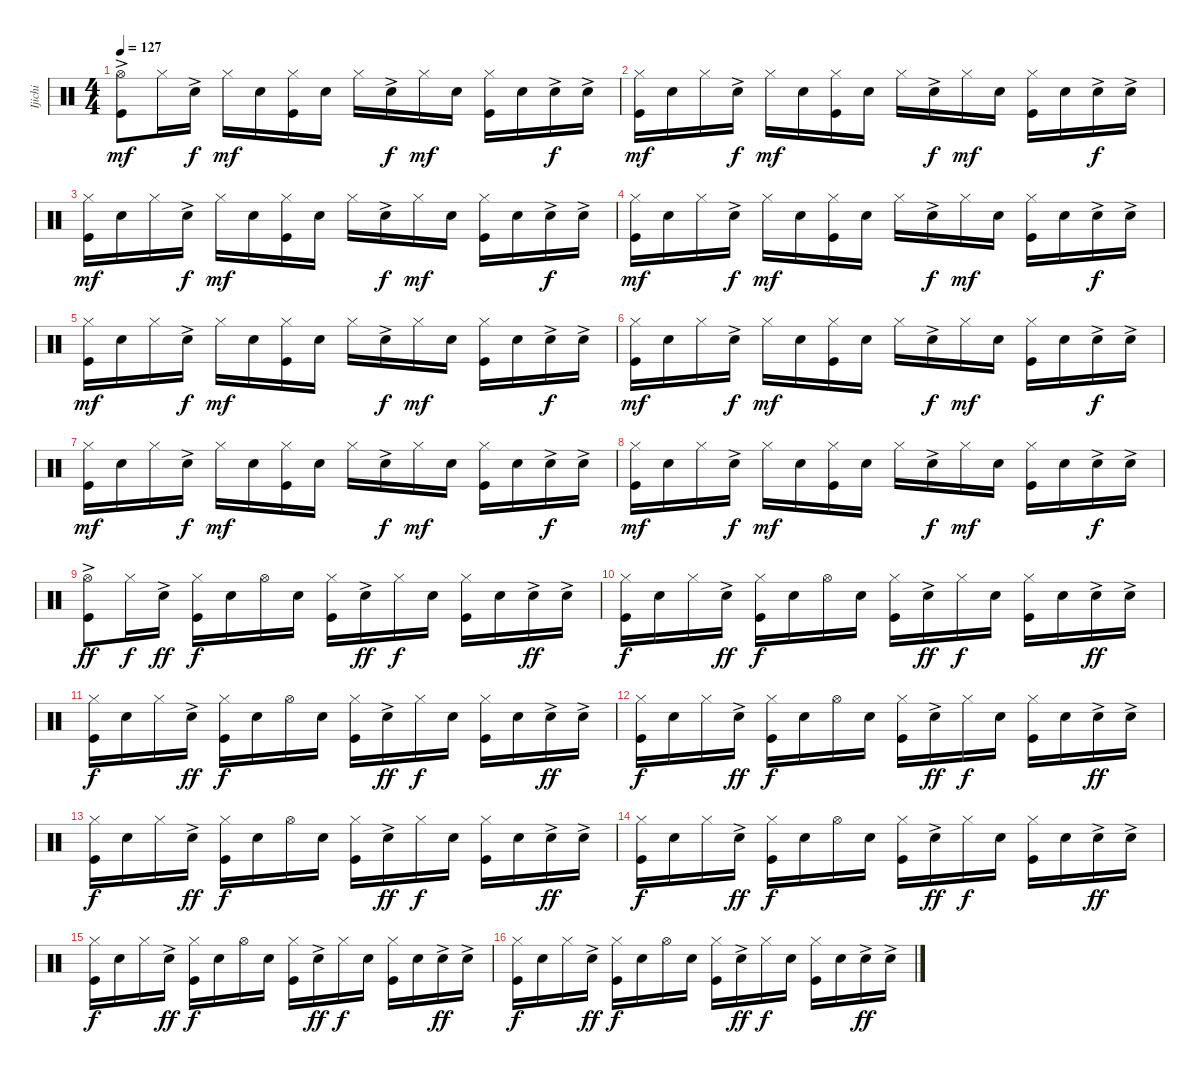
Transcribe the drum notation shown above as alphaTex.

\track ("Ijichi" "Ijichi") {instrument percussion}
\staff {score}
\articulation defaults
\ts (4 4)
\tempo 127
\clef neutral
\ks c
("Hi-Hat (open)"{ac} "Kick (hit)").8{dy mf} "Hi-Hat (closed)".16 "Electric Snare (hit)"{ac}.16{dy f} "Hi-Hat (closed)".16{dy mf} "Electric Snare (hit)".16 ("Hi-Hat (closed)" "Kick (hit)").16 "Electric Snare (hit)".16 "Hi-Hat (closed)".16 "Electric Snare (hit)"{ac}.16{dy f} "Hi-Hat (closed)".16{dy mf} "Electric Snare (hit)".16 ("Hi-Hat (closed)" "Kick (hit)").16 "Electric Snare (hit)".16 "Electric Snare (hit)"{ac}.16{dy f} "Electric Snare (hit)"{ac}.16 |
("Hi-Hat (closed)" "Kick (hit)").16{dy mf} "Electric Snare (hit)".16 "Hi-Hat (closed)".16 "Electric Snare (hit)"{ac}.16{dy f} "Hi-Hat (closed)".16{dy mf} "Electric Snare (hit)".16 ("Hi-Hat (closed)" "Kick (hit)").16 "Electric Snare (hit)".16 "Hi-Hat (closed)".16 "Electric Snare (hit)"{ac}.16{dy f} "Hi-Hat (closed)".16{dy mf} "Electric Snare (hit)".16 ("Hi-Hat (closed)" "Kick (hit)").16 "Electric Snare (hit)".16 "Electric Snare (hit)"{ac}.16{dy f} "Electric Snare (hit)"{ac}.16 |
("Hi-Hat (closed)" "Kick (hit)").16{dy mf} "Electric Snare (hit)".16 "Hi-Hat (closed)".16 "Electric Snare (hit)"{ac}.16{dy f} "Hi-Hat (closed)".16{dy mf} "Electric Snare (hit)".16 ("Hi-Hat (closed)" "Kick (hit)").16 "Electric Snare (hit)".16 "Hi-Hat (closed)".16 "Electric Snare (hit)"{ac}.16{dy f} "Hi-Hat (closed)".16{dy mf} "Electric Snare (hit)".16 ("Hi-Hat (closed)" "Kick (hit)").16 "Electric Snare (hit)".16 "Electric Snare (hit)"{ac}.16{dy f} "Electric Snare (hit)"{ac}.16 |
("Hi-Hat (closed)" "Kick (hit)").16{dy mf} "Electric Snare (hit)".16 "Hi-Hat (closed)".16 "Electric Snare (hit)"{ac}.16{dy f} "Hi-Hat (closed)".16{dy mf} "Electric Snare (hit)".16 ("Hi-Hat (closed)" "Kick (hit)").16 "Electric Snare (hit)".16 "Hi-Hat (closed)".16 "Electric Snare (hit)"{ac}.16{dy f} "Hi-Hat (closed)".16{dy mf} "Electric Snare (hit)".16 ("Hi-Hat (closed)" "Kick (hit)").16 "Electric Snare (hit)".16 "Electric Snare (hit)"{ac}.16{dy f} "Electric Snare (hit)"{ac}.16 |
("Hi-Hat (closed)" "Kick (hit)").16{dy mf} "Electric Snare (hit)".16 "Hi-Hat (closed)".16 "Electric Snare (hit)"{ac}.16{dy f} "Hi-Hat (closed)".16{dy mf} "Electric Snare (hit)".16 ("Hi-Hat (closed)" "Kick (hit)").16 "Electric Snare (hit)".16 "Hi-Hat (closed)".16 "Electric Snare (hit)"{ac}.16{dy f} "Hi-Hat (closed)".16{dy mf} "Electric Snare (hit)".16 ("Hi-Hat (closed)" "Kick (hit)").16 "Electric Snare (hit)".16 "Electric Snare (hit)"{ac}.16{dy f} "Electric Snare (hit)"{ac}.16 |
("Hi-Hat (closed)" "Kick (hit)").16{dy mf} "Electric Snare (hit)".16 "Hi-Hat (closed)".16 "Electric Snare (hit)"{ac}.16{dy f} "Hi-Hat (closed)".16{dy mf} "Electric Snare (hit)".16 ("Hi-Hat (closed)" "Kick (hit)").16 "Electric Snare (hit)".16 "Hi-Hat (closed)".16 "Electric Snare (hit)"{ac}.16{dy f} "Hi-Hat (closed)".16{dy mf} "Electric Snare (hit)".16 ("Hi-Hat (closed)" "Kick (hit)").16 "Electric Snare (hit)".16 "Electric Snare (hit)"{ac}.16{dy f} "Electric Snare (hit)"{ac}.16 |
("Hi-Hat (closed)" "Kick (hit)").16{dy mf} "Electric Snare (hit)".16 "Hi-Hat (closed)".16 "Electric Snare (hit)"{ac}.16{dy f} "Hi-Hat (closed)".16{dy mf} "Electric Snare (hit)".16 ("Hi-Hat (closed)" "Kick (hit)").16 "Electric Snare (hit)".16 "Hi-Hat (closed)".16 "Electric Snare (hit)"{ac}.16{dy f} "Hi-Hat (closed)".16{dy mf} "Electric Snare (hit)".16 ("Hi-Hat (closed)" "Kick (hit)").16 "Electric Snare (hit)".16 "Electric Snare (hit)"{ac}.16{dy f} "Electric Snare (hit)"{ac}.16 |
("Hi-Hat (closed)" "Kick (hit)").16{dy mf} "Electric Snare (hit)".16 "Hi-Hat (closed)".16 "Electric Snare (hit)"{ac}.16{dy f} "Hi-Hat (closed)".16{dy mf} "Electric Snare (hit)".16 ("Hi-Hat (closed)" "Kick (hit)").16 "Electric Snare (hit)".16 "Hi-Hat (closed)".16 "Electric Snare (hit)"{ac}.16{dy f} "Hi-Hat (closed)".16{dy mf} "Electric Snare (hit)".16 ("Hi-Hat (closed)" "Kick (hit)").16 "Electric Snare (hit)".16 "Electric Snare (hit)"{ac}.16{dy f} "Electric Snare (hit)"{ac}.16 |
("Hi-Hat (open)"{ac} "Kick (hit)").8{dy ff} "Hi-Hat (closed)".16{dy f} "Electric Snare (hit)"{ac}.16{dy ff} ("Hi-Hat (closed)" "Kick (hit)").16{dy f} "Electric Snare (hit)".16 "Hi-Hat (open)".16 "Electric Snare (hit)".16 ("Hi-Hat (closed)" "Kick (hit)").16 "Electric Snare (hit)"{ac}.16{dy ff} "Hi-Hat (closed)".16{dy f} "Electric Snare (hit)".16 ("Hi-Hat (closed)" "Kick (hit)").16 "Electric Snare (hit)".16 "Electric Snare (hit)"{ac}.16{dy ff} "Electric Snare (hit)"{ac}.16 |
("Hi-Hat (closed)" "Kick (hit)").16{dy f} "Electric Snare (hit)".16 "Hi-Hat (closed)".16 "Electric Snare (hit)"{ac}.16{dy ff} ("Hi-Hat (closed)" "Kick (hit)").16{dy f} "Electric Snare (hit)".16 "Hi-Hat (open)".16 "Electric Snare (hit)".16 ("Hi-Hat (closed)" "Kick (hit)").16 "Electric Snare (hit)"{ac}.16{dy ff} "Hi-Hat (closed)".16{dy f} "Electric Snare (hit)".16 ("Hi-Hat (closed)" "Kick (hit)").16 "Electric Snare (hit)".16 "Electric Snare (hit)"{ac}.16{dy ff} "Electric Snare (hit)"{ac}.16 |
("Hi-Hat (closed)" "Kick (hit)").16{dy f} "Electric Snare (hit)".16 "Hi-Hat (closed)".16 "Electric Snare (hit)"{ac}.16{dy ff} ("Hi-Hat (closed)" "Kick (hit)").16{dy f} "Electric Snare (hit)".16 "Hi-Hat (open)".16 "Electric Snare (hit)".16 ("Hi-Hat (closed)" "Kick (hit)").16 "Electric Snare (hit)"{ac}.16{dy ff} "Hi-Hat (closed)".16{dy f} "Electric Snare (hit)".16 ("Hi-Hat (closed)" "Kick (hit)").16 "Electric Snare (hit)".16 "Electric Snare (hit)"{ac}.16{dy ff} "Electric Snare (hit)"{ac}.16 |
("Hi-Hat (closed)" "Kick (hit)").16{dy f} "Electric Snare (hit)".16 "Hi-Hat (closed)".16 "Electric Snare (hit)"{ac}.16{dy ff} ("Hi-Hat (closed)" "Kick (hit)").16{dy f} "Electric Snare (hit)".16 "Hi-Hat (open)".16 "Electric Snare (hit)".16 ("Hi-Hat (closed)" "Kick (hit)").16 "Electric Snare (hit)"{ac}.16{dy ff} "Hi-Hat (closed)".16{dy f} "Electric Snare (hit)".16 ("Hi-Hat (closed)" "Kick (hit)").16 "Electric Snare (hit)".16 "Electric Snare (hit)"{ac}.16{dy ff} "Electric Snare (hit)"{ac}.16 |
("Hi-Hat (closed)" "Kick (hit)").16{dy f} "Electric Snare (hit)".16 "Hi-Hat (closed)".16 "Electric Snare (hit)"{ac}.16{dy ff} ("Hi-Hat (closed)" "Kick (hit)").16{dy f} "Electric Snare (hit)".16 "Hi-Hat (open)".16 "Electric Snare (hit)".16 ("Hi-Hat (closed)" "Kick (hit)").16 "Electric Snare (hit)"{ac}.16{dy ff} "Hi-Hat (closed)".16{dy f} "Electric Snare (hit)".16 ("Hi-Hat (closed)" "Kick (hit)").16 "Electric Snare (hit)".16 "Electric Snare (hit)"{ac}.16{dy ff} "Electric Snare (hit)"{ac}.16 |
("Hi-Hat (closed)" "Kick (hit)").16{dy f} "Electric Snare (hit)".16 "Hi-Hat (closed)".16 "Electric Snare (hit)"{ac}.16{dy ff} ("Hi-Hat (closed)" "Kick (hit)").16{dy f} "Electric Snare (hit)".16 "Hi-Hat (open)".16 "Electric Snare (hit)".16 ("Hi-Hat (closed)" "Kick (hit)").16 "Electric Snare (hit)"{ac}.16{dy ff} "Hi-Hat (closed)".16{dy f} "Electric Snare (hit)".16 ("Hi-Hat (closed)" "Kick (hit)").16 "Electric Snare (hit)".16 "Electric Snare (hit)"{ac}.16{dy ff} "Electric Snare (hit)"{ac}.16 |
("Hi-Hat (closed)" "Kick (hit)").16{dy f} "Electric Snare (hit)".16 "Hi-Hat (closed)".16 "Electric Snare (hit)"{ac}.16{dy ff} ("Hi-Hat (closed)" "Kick (hit)").16{dy f} "Electric Snare (hit)".16 "Hi-Hat (open)".16 "Electric Snare (hit)".16 ("Hi-Hat (closed)" "Kick (hit)").16 "Electric Snare (hit)"{ac}.16{dy ff} "Hi-Hat (closed)".16{dy f} "Electric Snare (hit)".16 ("Hi-Hat (closed)" "Kick (hit)").16 "Electric Snare (hit)".16 "Electric Snare (hit)"{ac}.16{dy ff} "Electric Snare (hit)"{ac}.16 |
("Hi-Hat (closed)" "Kick (hit)").16{dy f} "Electric Snare (hit)".16 "Hi-Hat (closed)".16 "Electric Snare (hit)"{ac}.16{dy ff} ("Hi-Hat (closed)" "Kick (hit)").16{dy f} "Electric Snare (hit)".16 "Hi-Hat (open)".16 "Electric Snare (hit)".16 ("Hi-Hat (closed)" "Kick (hit)").16 "Electric Snare (hit)"{ac}.16{dy ff} "Hi-Hat (closed)".16{dy f} "Electric Snare (hit)".16 ("Hi-Hat (closed)" "Kick (hit)").16 "Electric Snare (hit)".16 "Electric Snare (hit)"{ac}.16{dy ff} "Electric Snare (hit)"{ac}.16
